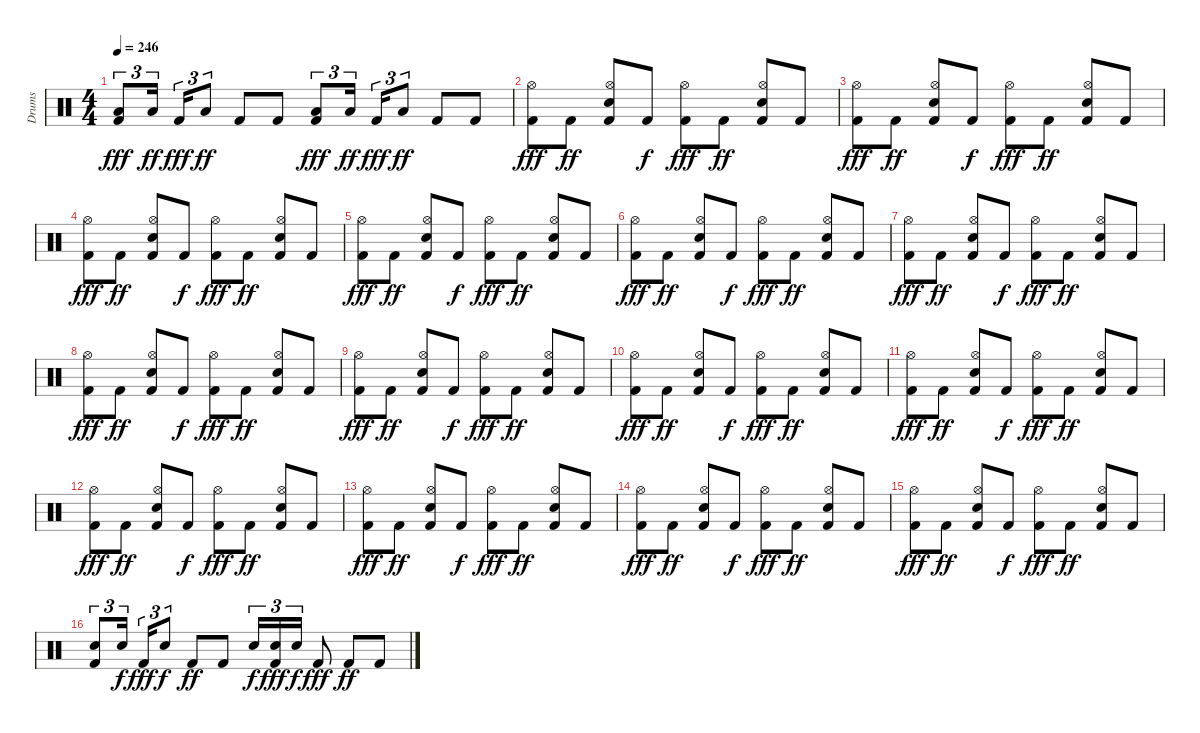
\track ("Drums" "Drums") {instrument percussion}
\staff {score}
\articulation defaults
\ts (4 4)
\tempo 246
\clef neutral
\ks c
("Kick (hit) 2" "Low Tom (hit)").8{tu (3 2) dy fff volume 12} "Low Tom (hit)".16{tu (3 2) dy ff} "Kick (hit) 2".16{tu (3 2) dy fff} "Low Tom (hit)".8{tu (3 2) dy ff} "Kick (hit) 2".8 "Kick (hit) 2".8 ("Kick (hit) 2" "Low Floor Tom (hit)").8{tu (3 2) dy fff} "Low Floor Tom (hit)".16{tu (3 2) dy ff} "Kick (hit) 2".16{tu (3 2) dy fff} "Low Floor Tom (hit)".8{tu (3 2) dy ff} "Kick (hit) 2".8 "Kick (hit) 2".8 |
("Kick (hit) 2" "Hi-Hat (open)").8{dy fff volume 12} "Kick (hit) 2".8{dy ff} ("Kick (hit) 2" "Snare (hit) 2" "Hi-Hat (open)").8 "Kick (hit) 2".8{dy f} ("Kick (hit) 2" "Hi-Hat (open)").8{dy fff} "Kick (hit) 2".8{dy ff} ("Kick (hit) 2" "Snare (hit) 2" "Hi-Hat (open)").8 "Kick (hit) 2".8 |
("Kick (hit) 2" "Hi-Hat (open)").8{dy fff volume 12} "Kick (hit) 2".8{dy ff} ("Kick (hit) 2" "Snare (hit) 2" "Hi-Hat (open)").8 "Kick (hit) 2".8{dy f} ("Kick (hit) 2" "Hi-Hat (open)").8{dy fff} "Kick (hit) 2".8{dy ff} ("Kick (hit) 2" "Snare (hit) 2" "Hi-Hat (open)").8 "Kick (hit) 2".8 |
("Kick (hit) 2" "Hi-Hat (open)").8{dy fff volume 12} "Kick (hit) 2".8{dy ff} ("Kick (hit) 2" "Snare (hit) 2" "Hi-Hat (open)").8 "Kick (hit) 2".8{dy f} ("Kick (hit) 2" "Hi-Hat (open)").8{dy fff} "Kick (hit) 2".8{dy ff} ("Kick (hit) 2" "Snare (hit) 2" "Hi-Hat (open)").8 "Kick (hit) 2".8 |
("Kick (hit) 2" "Hi-Hat (open)").8{dy fff volume 12} "Kick (hit) 2".8{dy ff} ("Kick (hit) 2" "Snare (hit) 2" "Hi-Hat (open)").8 "Kick (hit) 2".8{dy f} ("Kick (hit) 2" "Hi-Hat (open)").8{dy fff} "Kick (hit) 2".8{dy ff} ("Kick (hit) 2" "Snare (hit) 2" "Hi-Hat (open)").8 "Kick (hit) 2".8 |
("Kick (hit) 2" "Hi-Hat (open)").8{dy fff volume 12} "Kick (hit) 2".8{dy ff} ("Kick (hit) 2" "Snare (hit) 2" "Hi-Hat (open)").8 "Kick (hit) 2".8{dy f} ("Kick (hit) 2" "Hi-Hat (open)").8{dy fff} "Kick (hit) 2".8{dy ff} ("Kick (hit) 2" "Snare (hit) 2" "Hi-Hat (open)").8 "Kick (hit) 2".8 |
("Kick (hit) 2" "Hi-Hat (open)").8{dy fff volume 12} "Kick (hit) 2".8{dy ff} ("Kick (hit) 2" "Snare (hit) 2" "Hi-Hat (open)").8 "Kick (hit) 2".8{dy f} ("Kick (hit) 2" "Hi-Hat (open)").8{dy fff} "Kick (hit) 2".8{dy ff} ("Kick (hit) 2" "Snare (hit) 2" "Hi-Hat (open)").8 "Kick (hit) 2".8 |
("Kick (hit) 2" "Hi-Hat (open)").8{dy fff volume 12} "Kick (hit) 2".8{dy ff} ("Kick (hit) 2" "Snare (hit) 2" "Hi-Hat (open)").8 "Kick (hit) 2".8{dy f} ("Kick (hit) 2" "Hi-Hat (open)").8{dy fff} "Kick (hit) 2".8{dy ff} ("Kick (hit) 2" "Snare (hit) 2" "Hi-Hat (open)").8 "Kick (hit) 2".8 |
("Kick (hit) 2" "Hi-Hat (open)").8{dy fff volume 12} "Kick (hit) 2".8{dy ff} ("Kick (hit) 2" "Snare (hit) 2" "Hi-Hat (open)").8 "Kick (hit) 2".8{dy f} ("Kick (hit) 2" "Hi-Hat (open)").8{dy fff} "Kick (hit) 2".8{dy ff} ("Kick (hit) 2" "Snare (hit) 2" "Hi-Hat (open)").8 "Kick (hit) 2".8 |
("Kick (hit) 2" "Hi-Hat (open)").8{dy fff volume 12} "Kick (hit) 2".8{dy ff} ("Kick (hit) 2" "Snare (hit) 2" "Hi-Hat (open)").8 "Kick (hit) 2".8{dy f} ("Kick (hit) 2" "Hi-Hat (open)").8{dy fff} "Kick (hit) 2".8{dy ff} ("Kick (hit) 2" "Snare (hit) 2" "Hi-Hat (open)").8 "Kick (hit) 2".8 |
("Kick (hit) 2" "Hi-Hat (open)").8{dy fff volume 12} "Kick (hit) 2".8{dy ff} ("Kick (hit) 2" "Snare (hit) 2" "Hi-Hat (open)").8 "Kick (hit) 2".8{dy f} ("Kick (hit) 2" "Hi-Hat (open)").8{dy fff} "Kick (hit) 2".8{dy ff} ("Kick (hit) 2" "Snare (hit) 2" "Hi-Hat (open)").8 "Kick (hit) 2".8 |
("Kick (hit) 2" "Hi-Hat (open)").8{dy fff volume 12} "Kick (hit) 2".8{dy ff} ("Kick (hit) 2" "Snare (hit) 2" "Hi-Hat (open)").8 "Kick (hit) 2".8{dy f} ("Kick (hit) 2" "Hi-Hat (open)").8{dy fff} "Kick (hit) 2".8{dy ff} ("Kick (hit) 2" "Snare (hit) 2" "Hi-Hat (open)").8 "Kick (hit) 2".8 |
("Kick (hit) 2" "Hi-Hat (open)").8{dy fff volume 12} "Kick (hit) 2".8{dy ff} ("Kick (hit) 2" "Snare (hit) 2" "Hi-Hat (open)").8 "Kick (hit) 2".8{dy f} ("Kick (hit) 2" "Hi-Hat (open)").8{dy fff} "Kick (hit) 2".8{dy ff} ("Kick (hit) 2" "Snare (hit) 2" "Hi-Hat (open)").8 "Kick (hit) 2".8 |
("Kick (hit) 2" "Hi-Hat (open)").8{dy fff volume 12} "Kick (hit) 2".8{dy ff} ("Kick (hit) 2" "Snare (hit) 2" "Hi-Hat (open)").8 "Kick (hit) 2".8{dy f} ("Kick (hit) 2" "Hi-Hat (open)").8{dy fff} "Kick (hit) 2".8{dy ff} ("Kick (hit) 2" "Snare (hit) 2" "Hi-Hat (open)").8 "Kick (hit) 2".8 |
("Kick (hit) 2" "Hi-Hat (open)").8{dy fff volume 12} "Kick (hit) 2".8{dy ff} ("Kick (hit) 2" "Snare (hit) 2" "Hi-Hat (open)").8 "Kick (hit) 2".8{dy f} ("Kick (hit) 2" "Hi-Hat (open)").8{dy fff} "Kick (hit) 2".8{dy ff} ("Kick (hit) 2" "Snare (hit) 2" "Hi-Hat (open)").8 "Kick (hit) 2".8 |
("Kick (hit) 2" "Snare (hit) 2").8{tu (3 2) volume 12} "Snare (hit) 2".16{tu (3 2) dy f} "Kick (hit) 2".16{tu (3 2) dy fff} "Snare (hit) 2".8{tu (3 2) dy f} "Kick (hit) 2".8{dy ff} "Kick (hit) 2".8 "Snare (hit) 2".16{tu (3 2) dy f} ("Kick (hit) 2" "Snare (hit) 2").16{tu (3 2) dy fff} "Snare (hit) 2".16{tu (3 2) dy f} "Kick (hit) 2".8{dy fff} "Kick (hit) 2".8{dy ff} "Kick (hit) 2".8
